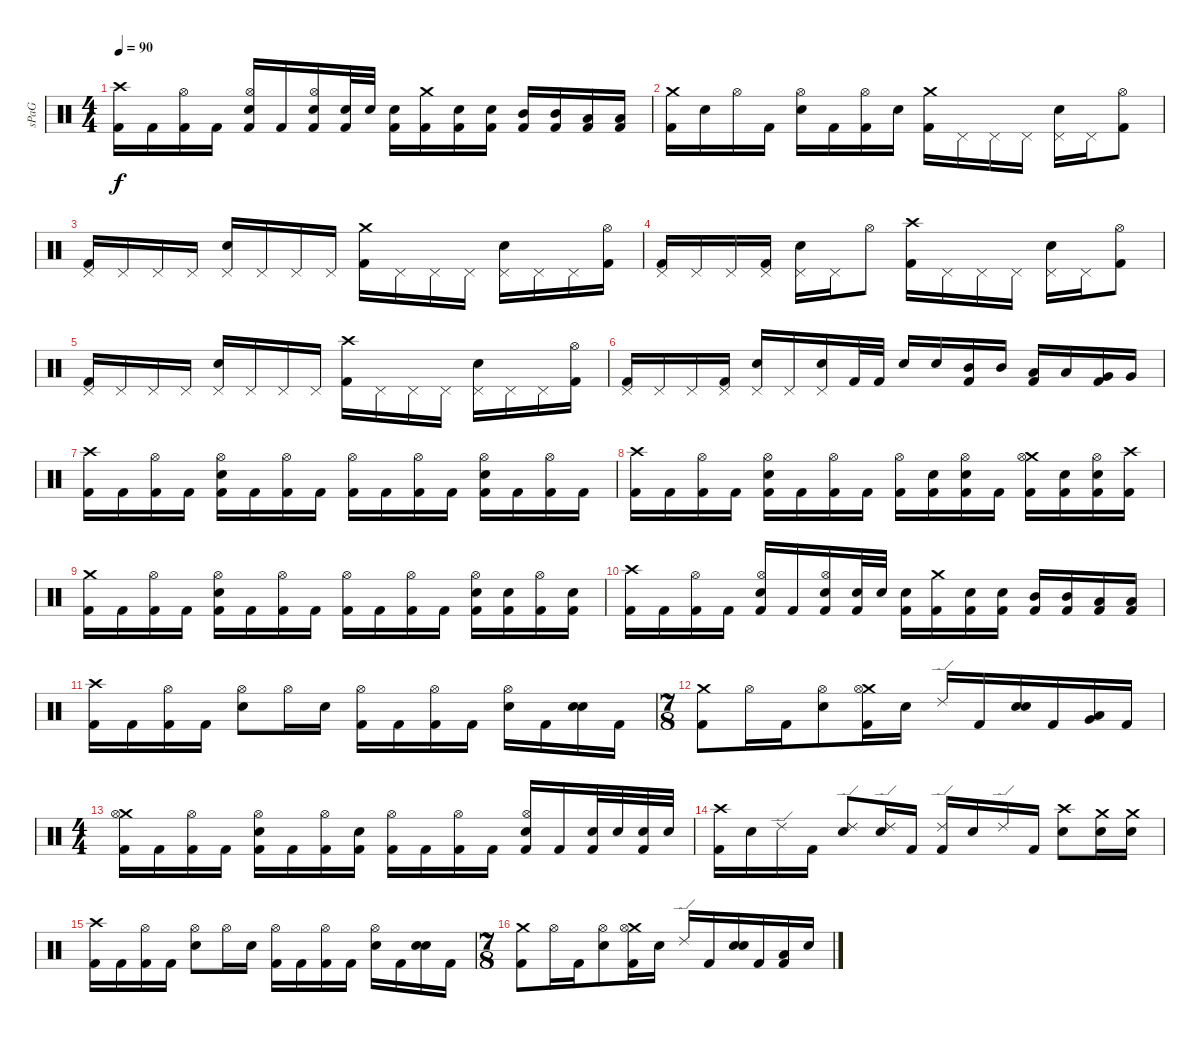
\track ("sPaG" "sPaG") {instrument percussion}
\staff {score}
\articulation defaults
\ts (4 4)
\tempo 90
\clef neutral
\ks c
("Crash high (hit)" "Kick (hit) 2").16{dy f} "Kick (hit) 2".16 ("Hi-Hat (open)" "Kick (hit) 2").16 "Kick (hit) 2".16 ("Hi-Hat (open)" "Snare (hit) 2" "Kick (hit) 2").16 "Kick (hit) 2".16 ("Hi-Hat (open)" "Snare (hit) 2" "Kick (hit) 2").16 ("Snare (hit) 2" "Kick (hit) 2").32 "Snare (hit) 2".32 ("Snare (hit) 2" "Kick (hit) 2").16 ("Crash medium (hit)" "Kick (hit) 2").16 ("Snare (hit) 2" "Kick (hit) 2").16 ("Snare (hit) 2" "Kick (hit) 2").16 ("Mid Tom (hit)" "Kick (hit) 2").16 ("Mid Tom (hit)" "Kick (hit) 2").16 ("Low Tom (hit)" "Kick (hit) 2").16 ("Low Tom (hit)" "Kick (hit) 2").16 |
("Crash medium (hit)" "Kick (hit) 2").16 "Snare (hit) 2".16 "Hi-Hat (open)".16 "Kick (hit) 2".16 ("Hi-Hat (open)" "Snare (hit) 2").16 "Kick (hit) 2".16 ("Hi-Hat (open)" "Kick (hit) 2").16 "Snare (hit) 2".16 ("Crash medium (hit)" "Kick (hit) 2").16 "Pedal Hi-Hat (hit)".16 "Pedal Hi-Hat (hit)".16 "Pedal Hi-Hat (hit)".16 ("Pedal Hi-Hat (hit)" "Snare (hit) 2").16 "Pedal Hi-Hat (hit)".16 ("Hi-Hat (open)" "Kick (hit) 2").8 |
("Pedal Hi-Hat (hit)" "Kick (hit) 2").16 "Pedal Hi-Hat (hit)".16 "Pedal Hi-Hat (hit)".16 "Pedal Hi-Hat (hit)".16 ("Pedal Hi-Hat (hit)" "Snare (hit) 2").16 "Pedal Hi-Hat (hit)".16 "Pedal Hi-Hat (hit)".16 "Pedal Hi-Hat (hit)".16 ("Crash medium (hit)" "Kick (hit) 2").16 "Pedal Hi-Hat (hit)".16 "Pedal Hi-Hat (hit)".16 "Pedal Hi-Hat (hit)".16 ("Pedal Hi-Hat (hit)" "Snare (hit) 2").16 "Pedal Hi-Hat (hit)".16 "Pedal Hi-Hat (hit)".16 ("Hi-Hat (open)" "Kick (hit) 2").16 |
("Pedal Hi-Hat (hit)" "Kick (hit) 2").16 "Pedal Hi-Hat (hit)".16 "Pedal Hi-Hat (hit)".16 ("Pedal Hi-Hat (hit)" "Kick (hit) 2").16 ("Pedal Hi-Hat (hit)" "Snare (hit) 2").16 "Pedal Hi-Hat (hit)".16 "Hi-Hat (open)".8 ("Crash high (hit)" "Kick (hit) 2").16 "Pedal Hi-Hat (hit)".16 "Pedal Hi-Hat (hit)".16 "Pedal Hi-Hat (hit)".16 ("Pedal Hi-Hat (hit)" "Snare (hit) 2").16 "Pedal Hi-Hat (hit)".16 ("Hi-Hat (open)" "Kick (hit) 2").8 |
("Pedal Hi-Hat (hit)" "Kick (hit) 2").16 "Pedal Hi-Hat (hit)".16 "Pedal Hi-Hat (hit)".16 "Pedal Hi-Hat (hit)".16 ("Pedal Hi-Hat (hit)" "Snare (hit) 2").16 "Pedal Hi-Hat (hit)".16 "Pedal Hi-Hat (hit)".16 "Pedal Hi-Hat (hit)".16 ("Crash high (hit)" "Kick (hit) 2").16 "Pedal Hi-Hat (hit)".16 "Pedal Hi-Hat (hit)".16 "Pedal Hi-Hat (hit)".16 ("Pedal Hi-Hat (hit)" "Snare (hit) 2").16 "Pedal Hi-Hat (hit)".16 "Pedal Hi-Hat (hit)".16 ("Hi-Hat (open)" "Kick (hit) 2").16 |
("Pedal Hi-Hat (hit)" "Kick (hit) 2").16 "Pedal Hi-Hat (hit)".16 "Pedal Hi-Hat (hit)".16 ("Pedal Hi-Hat (hit)" "Kick (hit) 2").16 ("Pedal Hi-Hat (hit)" "Snare (hit) 2").16 "Pedal Hi-Hat (hit)".16 ("Pedal Hi-Hat (hit)" "Snare (hit) 2").16 "Kick (hit) 2".32 "Kick (hit) 2".32 "Snare (hit) 2".16 "Snare (hit) 2".16 ("Mid Tom (hit)" "Kick (hit) 2").16 "Mid Tom (hit)".16 ("Low Tom (hit)" "Kick (hit) 2").16 "Low Tom (hit)".16 ("Very Low Tom (hit)" "Kick (hit) 2").16 "Very Low Tom (hit)".16 |
("Crash high (hit)" "Kick (hit) 2").16 "Kick (hit) 2".16 ("Hi-Hat (open)" "Kick (hit) 2").16 "Kick (hit) 2".16 ("Hi-Hat (open)" "Snare (hit) 2" "Kick (hit) 2").16 "Kick (hit) 2".16 ("Hi-Hat (open)" "Kick (hit) 2").16 "Kick (hit) 2".16 ("Hi-Hat (open)" "Kick (hit) 2").16 "Kick (hit) 2".16 ("Hi-Hat (open)" "Kick (hit) 2").16 "Kick (hit) 2".16 ("Hi-Hat (open)" "Snare (hit) 2" "Kick (hit) 2").16 "Kick (hit) 2".16 ("Hi-Hat (open)" "Kick (hit) 2").16 "Kick (hit) 2".16 |
("Crash high (hit)" "Kick (hit) 2").16 "Kick (hit) 2".16 ("Hi-Hat (open)" "Kick (hit) 2").16 "Kick (hit) 2".16 ("Hi-Hat (open)" "Snare (hit) 2" "Kick (hit) 2").16 "Kick (hit) 2".16 ("Hi-Hat (open)" "Kick (hit) 2").16 "Kick (hit) 2".16 ("Hi-Hat (open)" "Kick (hit) 2").16 ("Snare (hit) 2" "Kick (hit) 2").16 ("Hi-Hat (open)" "Snare (hit) 2" "Kick (hit) 2").16 "Kick (hit) 2".16 ("Crash medium (hit)" "Hi-Hat (open)" "Kick (hit) 2").16 ("Snare (hit) 2" "Kick (hit) 2").16 ("Hi-Hat (open)" "Snare (hit) 2" "Kick (hit) 2").16 ("Crash high (hit)" "Kick (hit) 2").16 |
("Crash medium (hit)" "Kick (hit) 2").16 "Kick (hit) 2".16 ("Hi-Hat (open)" "Kick (hit) 2").16 "Kick (hit) 2".16 ("Hi-Hat (open)" "Snare (hit) 2" "Kick (hit) 2").16 "Kick (hit) 2".16 ("Hi-Hat (open)" "Kick (hit) 2").16 "Kick (hit) 2".16 ("Hi-Hat (open)" "Kick (hit) 2").16 "Kick (hit) 2".16 ("Hi-Hat (open)" "Kick (hit) 2").16 "Kick (hit) 2".16 ("Hi-Hat (open)" "Snare (hit) 2" "Kick (hit) 2").16 ("Snare (hit) 2" "Kick (hit) 2").16 ("Hi-Hat (open)" "Kick (hit) 2").16 ("Snare (hit) 2" "Kick (hit) 2").16 |
("Crash high (hit)" "Kick (hit) 2").16 "Kick (hit) 2".16 ("Hi-Hat (open)" "Kick (hit) 2").16 "Kick (hit) 2".16 ("Hi-Hat (open)" "Snare (hit) 2" "Kick (hit) 2").16 "Kick (hit) 2".16 ("Hi-Hat (open)" "Snare (hit) 2" "Kick (hit) 2").16 ("Snare (hit) 2" "Kick (hit) 2").32 "Snare (hit) 2".32 ("Snare (hit) 2" "Kick (hit) 2").16 ("Crash medium (hit)" "Kick (hit) 2").16 ("Snare (hit) 2" "Kick (hit) 2").16 ("Snare (hit) 2" "Kick (hit) 2").16 ("Mid Tom (hit)" "Kick (hit) 2").16 ("Mid Tom (hit)" "Kick (hit) 2").16 ("Low Tom (hit)" "Kick (hit) 2").16 ("Low Tom (hit)" "Kick (hit) 2").16 |
("Crash high (hit)" "Kick (hit) 2").16 "Kick (hit) 2".16 ("Hi-Hat (open)" "Kick (hit) 2").16 "Kick (hit) 2".16 ("Hi-Hat (open)" "Snare (hit) 2").8 "Hi-Hat (open)".16 "Snare (hit) 2".16 ("Hi-Hat (open)" "Kick (hit) 2").16 "Kick (hit) 2".16 ("Hi-Hat (open)" "Kick (hit) 2").16 "Kick (hit) 2".16 ("Hi-Hat (open)" "Snare (hit) 2").16 "Kick (hit) 2".16 ("Snare (hit) 2" "Snare (hit) 2").16 "Kick (hit) 2".16 |
\ts (7 8)
("Crash medium (hit)" "Kick (hit) 2").8 "Hi-Hat (open)".16 "Kick (hit) 2".16 ("Hi-Hat (open)" "Snare (hit) 2").8 ("Crash medium (hit)" "Hi-Hat (open)" "Kick (hit) 2").16 "Snare (hit) 2".16 "Ride (edge) 2".16 "Kick (hit) 2".16 ("Snare (hit) 2" "Snare (hit) 2").16 "Kick (hit) 2".16 ("Low Tom (hit)" "Very Low Tom (hit)").16 "Kick (hit) 2".16 |
\ts (4 4)
("Crash medium (hit)" "Hi-Hat (open)" "Kick (hit) 2").16 "Kick (hit) 2".16 ("Hi-Hat (open)" "Kick (hit) 2").16 "Kick (hit) 2".16 ("Hi-Hat (open)" "Snare (hit) 2" "Kick (hit) 2").16 "Kick (hit) 2".16 ("Hi-Hat (open)" "Kick (hit) 2").16 ("Snare (hit) 2" "Kick (hit) 2").16 ("Hi-Hat (open)" "Kick (hit) 2").16 "Kick (hit) 2".16 ("Hi-Hat (open)" "Kick (hit) 2").16 "Kick (hit) 2".16 ("Hi-Hat (open)" "Snare (hit) 2" "Kick (hit) 2").16 "Kick (hit) 2".16 ("Snare (hit) 2" "Kick (hit) 2").32 "Snare (hit) 2".32 ("Snare (hit) 2" "Kick (hit) 2").32 "Snare (hit) 2".32 |
("Crash high (hit)" "Kick (hit) 2").16 "Snare (hit) 2".16 "Ride (edge) 2".16 "Kick (hit) 2".16 ("Ride (edge) 2" "Snare (hit) 2").8 ("Ride (edge) 2" "Snare (hit) 2").16 "Kick (hit) 2".16 ("Ride (edge) 2" "Kick (hit) 2").16 "Snare (hit) 2".16 "Ride (edge) 2".16 "Kick (hit) 2".16 ("Crash high (hit)" "Snare (hit) 2").8 ("Crash medium (hit)" "Snare (hit) 2").16 ("Crash medium (hit)" "Snare (hit) 2").16 |
("Crash high (hit)" "Kick (hit) 2").16 "Kick (hit) 2".16 ("Hi-Hat (open)" "Kick (hit) 2").16 "Kick (hit) 2".16 ("Hi-Hat (open)" "Snare (hit) 2").8 "Hi-Hat (open)".16 "Snare (hit) 2".16 ("Hi-Hat (open)" "Kick (hit) 2").16 "Kick (hit) 2".16 ("Hi-Hat (open)" "Kick (hit) 2").16 "Kick (hit) 2".16 ("Hi-Hat (open)" "Snare (hit) 2").16 "Kick (hit) 2".16 ("Snare (hit) 2" "Snare (hit) 2").16 "Kick (hit) 2".16 |
\ts (7 8)
("Crash medium (hit)" "Kick (hit) 2").8 "Hi-Hat (open)".16 "Kick (hit) 2".16 ("Hi-Hat (open)" "Snare (hit) 2").8 ("Crash medium (hit)" "Hi-Hat (open)" "Kick (hit) 2").16 "Snare (hit) 2".16 "Ride (edge) 2".16 "Kick (hit) 2".16 ("Snare (hit) 2" "Snare (hit) 2").16 "Kick (hit) 2".16 ("Low Tom (hit)" "Kick (hit) 2").16 "Snare (hit) 2".16
